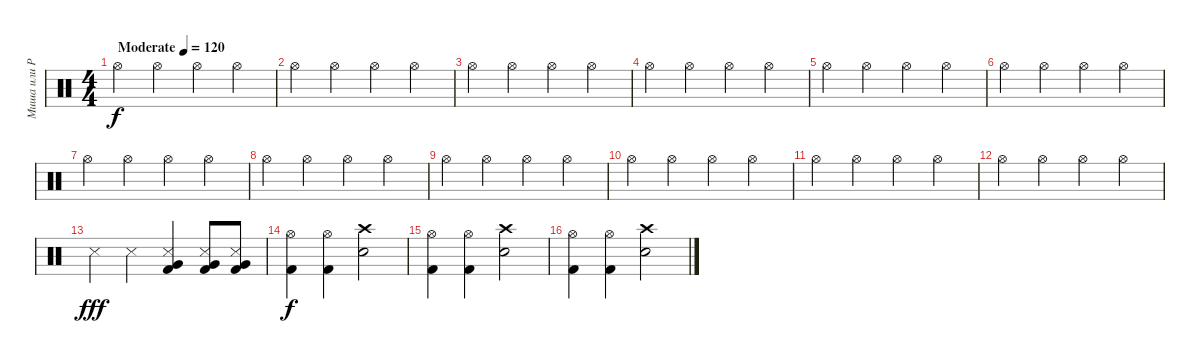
\track ("Миша или Рома" "Миша или Р") {instrument percussion}
\staff {score}
\articulation defaults
\ts (4 4)
\tempo (120 "Moderate")
\clef neutral
\ks c "Hi-Hat (open)".4{dy f} "Hi-Hat (open)".4 "Hi-Hat (open)".4 "Hi-Hat (open)".4
|
"Hi-Hat (open)".4 "Hi-Hat (open)".4 "Hi-Hat (open)".4 "Hi-Hat (open)".4 |
"Hi-Hat (open)".4 "Hi-Hat (open)".4 "Hi-Hat (open)".4 "Hi-Hat (open)".4 |
"Hi-Hat (open)".4 "Hi-Hat (open)".4 "Hi-Hat (open)".4 "Hi-Hat (open)".4 |
"Hi-Hat (open)".4 "Hi-Hat (open)".4 "Hi-Hat (open)".4 "Hi-Hat (open)".4 |
"Hi-Hat (open)".4 "Hi-Hat (open)".4 "Hi-Hat (open)".4 "Hi-Hat (open)".4 |
"Hi-Hat (open)".4 "Hi-Hat (open)".4 "Hi-Hat (open)".4 "Hi-Hat (open)".4 |
"Hi-Hat (open)".4 "Hi-Hat (open)".4 "Hi-Hat (open)".4 "Hi-Hat (open)".4 |
"Hi-Hat (open)".4 "Hi-Hat (open)".4 "Hi-Hat (open)".4 "Hi-Hat (open)".4 |
"Hi-Hat (open)".4 "Hi-Hat (open)".4 "Hi-Hat (open)".4 "Hi-Hat (open)".4 |
"Hi-Hat (open)".4 "Hi-Hat (open)".4 "Hi-Hat (open)".4 "Hi-Hat (open)".4 |
"Hi-Hat (open)".4 "Hi-Hat (open)".4 "Hi-Hat (open)".4 "Hi-Hat (open)".4 |
"Metronome (hit)".4{dy fff} "Metronome (hit)".4 ("Metronome (hit)" "Very Low Tom (hit)" "Kick (hit) 2").4 ("Metronome (hit)" "Very Low Tom (hit)" "Kick (hit) 2").8 ("Metronome (hit)" "Very Low Tom (hit)" "Kick (hit) 2").8 |
("Hi-Hat (open)" "Kick (hit) 2").4{dy f} ("Hi-Hat (open)" "Kick (hit) 2").4 ("Crash high (hit)" "Snare (hit) 2").2 |
("Hi-Hat (open)" "Kick (hit) 2").4 ("Hi-Hat (open)" "Kick (hit) 2").4 ("Crash high (hit)" "Snare (hit) 2").2 |
("Hi-Hat (open)" "Kick (hit) 2").4 ("Hi-Hat (open)" "Kick (hit) 2").4 ("Crash high (hit)" "Snare (hit) 2").2
